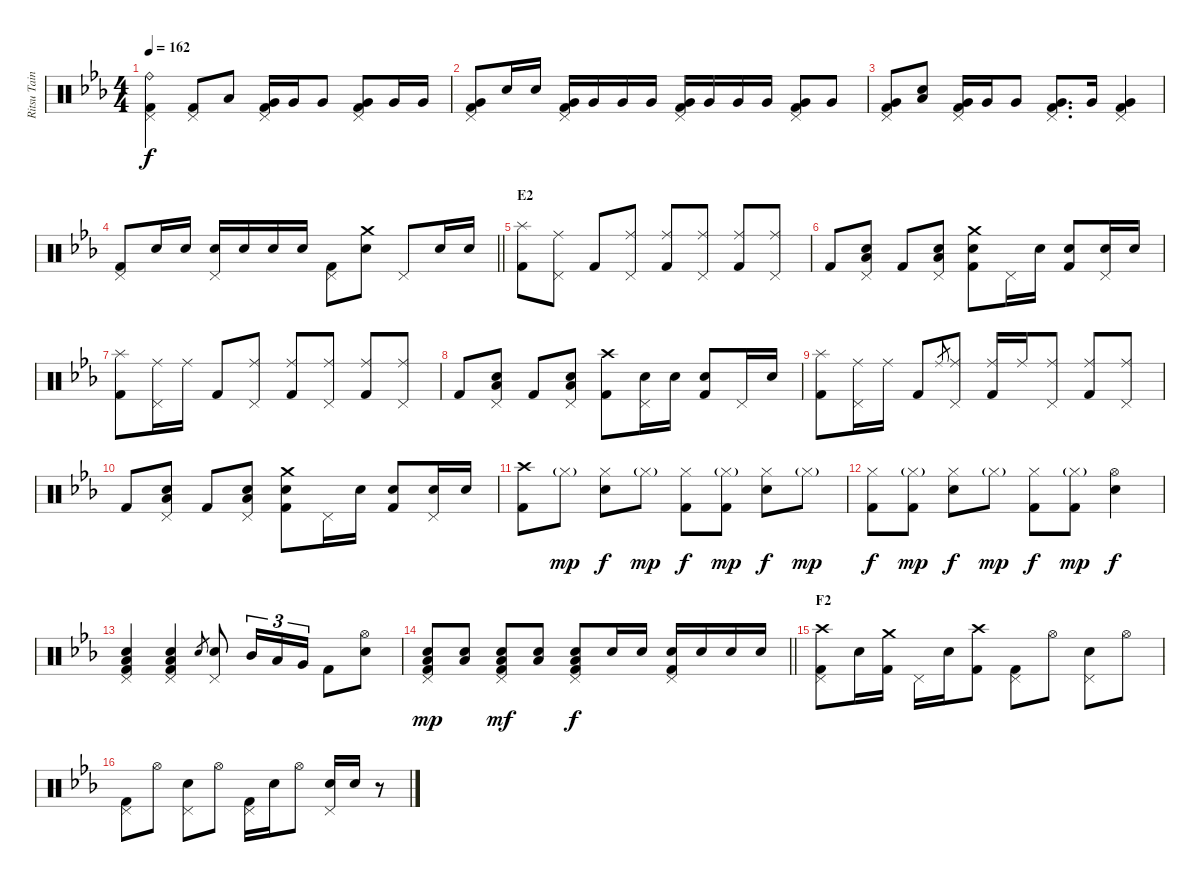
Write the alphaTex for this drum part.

\track ("Ritsu Tainaka" "Ritsu Tain") {instrument percussion}
\staff {score}
\articulation defaults
\ts (4 4)
\tempo 162
\clef neutral
\ks eb
("Ride (bell)" "Pedal Hi-Hat (hit)" "Kick (hit) 2").4{dy f} ("Pedal Hi-Hat (hit)" "Kick (hit) 2").8 "Low Tom (hit)".8 ("Pedal Hi-Hat (hit)" "Very Low Tom (hit)" "Kick (hit) 2").16 "Very Low Tom (hit)".16 "Very Low Tom (hit)".8 ("Pedal Hi-Hat (hit)" "Very Low Tom (hit)" "Kick (hit) 2").8 "Very Low Tom (hit)".16 "Very Low Tom (hit)".16 |
("Pedal Hi-Hat (hit)" "Very Low Tom (hit)" "Kick (hit) 2").8 "Electric Snare (hit)".16 "Electric Snare (hit)".16 ("Pedal Hi-Hat (hit)" "Very Low Tom (hit)" "Kick (hit) 2").16 "Very Low Tom (hit)".16 "Very Low Tom (hit)".16 "Very Low Tom (hit)".16 ("Pedal Hi-Hat (hit)" "Very Low Tom (hit)" "Kick (hit) 2").16 "Very Low Tom (hit)".16 "Very Low Tom (hit)".16 "Very Low Tom (hit)".16 ("Pedal Hi-Hat (hit)" "Very Low Tom (hit)" "Kick (hit) 2").8 "Very Low Tom (hit)".8 |
("Pedal Hi-Hat (hit)" "Very Low Tom (hit)" "Kick (hit) 2").8 ("Electric Snare (hit)" "Low Floor Tom (hit)").8 ("Pedal Hi-Hat (hit)" "Very Low Tom (hit)" "Kick (hit) 2").16 "Very Low Tom (hit)".16 "Very Low Tom (hit)".8 ("Pedal Hi-Hat (hit)" "Very Low Tom (hit)" "Kick (hit) 2").8{d} "Very Low Tom (hit)".16 ("Pedal Hi-Hat (hit)" "Very Low Tom (hit)" "Kick (hit) 2").4 |
\barLineRight lightlight
("Pedal Hi-Hat (hit)" "Kick (hit) 2").8 "Electric Snare (hit)".16 "Electric Snare (hit)".16 ("Pedal Hi-Hat (hit)" "Electric Snare (hit)").16 "Electric Snare (hit)".16 "Electric Snare (hit)".16 "Electric Snare (hit)".16 ("Pedal Hi-Hat (hit)" "Kick (hit) 2").8 ("Crash medium (hit)" "Electric Snare (hit)").8 "Pedal Hi-Hat (hit)".8 "Electric Snare (hit)".16 "Electric Snare (hit)".16 |
\section ("" "E2")
("Splash (hit)" "Kick (hit) 2").8 ("Ride (middle)" "Pedal Hi-Hat (hit)").8 "Kick (hit) 2".8 ("Ride (middle)" "Pedal Hi-Hat (hit)").8 ("Ride (middle)" "Kick (hit) 2").8 ("Ride (middle)" "Pedal Hi-Hat (hit)").8 ("Ride (middle)" "Kick (hit) 2").8 ("Ride (middle)" "Pedal Hi-Hat (hit)").8 |
"Kick (hit) 2".8 ("Pedal Hi-Hat (hit)" "Electric Snare (hit)" "Low Floor Tom (hit)").8 "Kick (hit) 2".8 ("Pedal Hi-Hat (hit)" "Electric Snare (hit)" "Low Floor Tom (hit)").8 ("Crash medium (hit)" "Electric Snare (hit)" "Kick (hit) 2").8 "Pedal Hi-Hat (hit)".16 "Electric Snare (hit)".16 ("Electric Snare (hit)" "Kick (hit) 2").8 ("Pedal Hi-Hat (hit)" "Electric Snare (hit)").16 "Electric Snare (hit)".16 |
("Splash (hit)" "Kick (hit) 2").8 ("Ride (middle)" "Pedal Hi-Hat (hit)").16 "Ride (middle)".16 "Kick (hit) 2".8 ("Ride (middle)" "Pedal Hi-Hat (hit)").8 ("Ride (middle)" "Kick (hit) 2").8 ("Ride (middle)" "Pedal Hi-Hat (hit)").8 ("Ride (middle)" "Kick (hit) 2").8 ("Ride (middle)" "Pedal Hi-Hat (hit)").8 |
"Kick (hit) 2".8 ("Pedal Hi-Hat (hit)" "Electric Snare (hit)" "Low Floor Tom (hit)").8 "Kick (hit) 2".8 ("Pedal Hi-Hat (hit)" "Electric Snare (hit)" "Low Floor Tom (hit)").8 ("Crash high (hit)" "Kick (hit) 2").8 ("Pedal Hi-Hat (hit)" "Electric Snare (hit)").16 "Electric Snare (hit)".16 ("Electric Snare (hit)" "Kick (hit) 2").8 "Pedal Hi-Hat (hit)".16 "Electric Snare (hit)".16 |
("Splash (hit)" "Kick (hit) 2").8 ("Ride (middle)" "Pedal Hi-Hat (hit)").16 "Ride (middle)".16 "Kick (hit) 2".8 "Ride (middle)".8{gr} ("Ride (middle)" "Pedal Hi-Hat (hit)").8 ("Ride (middle)" "Kick (hit) 2").16 "Ride (middle)".16 ("Ride (middle)" "Pedal Hi-Hat (hit)").8 ("Ride (middle)" "Kick (hit) 2").8 ("Ride (middle)" "Pedal Hi-Hat (hit)").8 |
"Kick (hit) 2".8 ("Pedal Hi-Hat (hit)" "Electric Snare (hit)" "Low Floor Tom (hit)").8 "Kick (hit) 2".8 ("Pedal Hi-Hat (hit)" "Electric Snare (hit)" "Low Floor Tom (hit)").8 ("Crash medium (hit)" "Electric Snare (hit)" "Kick (hit) 2").8 "Pedal Hi-Hat (hit)".16 "Electric Snare (hit)".16 ("Electric Snare (hit)" "Kick (hit) 2").8 ("Pedal Hi-Hat (hit)" "Electric Snare (hit)").16 "Electric Snare (hit)".16 |
("Crash high (hit)" "Kick (hit) 2").8 "Hi-Hat (closed)"{g}.8{dy mp} ("Hi-Hat (closed)" "Electric Snare (hit)").8{dy f} "Hi-Hat (closed)"{g}.8{dy mp} ("Hi-Hat (closed)" "Kick (hit) 2").8{dy f} ("Hi-Hat (closed)"{g} "Kick (hit) 2").8{dy mp} ("Hi-Hat (closed)" "Electric Snare (hit)").8{dy f} "Hi-Hat (closed)"{g}.8{dy mp} |
("Hi-Hat (closed)" "Kick (hit) 2").8{dy f} ("Hi-Hat (closed)"{g} "Kick (hit) 2").8{dy mp} ("Hi-Hat (closed)" "Electric Snare (hit)").8{dy f} "Hi-Hat (closed)"{g}.8{dy mp} ("Hi-Hat (closed)" "Kick (hit) 2").8{dy f} ("Hi-Hat (closed)"{g} "Kick (hit) 2").8{dy mp} ("Hi-Hat (open)" "Electric Snare (hit)").4{dy f} |
("Pedal Hi-Hat (hit)" "Electric Snare (hit)" "Low Floor Tom (hit)" "Kick (hit) 2").4 ("Pedal Hi-Hat (hit)" "Electric Snare (hit)" "Low Floor Tom (hit)" "Kick (hit) 2").4 "Electric Snare (hit)".8{gr} ("Pedal Hi-Hat (hit)" "Electric Snare (hit)").8 "Mid Tom (hit)".16{tu (3 2)} "Low Tom (hit)".16{tu (3 2)} "Very Low Tom (hit)".16{tu (3 2)} "Kick (hit) 2".8 ("Hi-Hat (open)" "Electric Snare (hit)").8 |
\barLineRight lightlight
("Pedal Hi-Hat (hit)" "Electric Snare (hit)" "Low Floor Tom (hit)" "Kick (hit) 2").8{dy mp} ("Electric Snare (hit)" "Low Floor Tom (hit)").8 ("Pedal Hi-Hat (hit)" "Electric Snare (hit)" "Low Floor Tom (hit)" "Kick (hit) 2").8{dy mf} ("Electric Snare (hit)" "Low Floor Tom (hit)").8 ("Pedal Hi-Hat (hit)" "Electric Snare (hit)" "Low Floor Tom (hit)" "Kick (hit) 2").8{dy f} "Electric Snare (hit)".16 "Electric Snare (hit)".16 ("Pedal Hi-Hat (hit)" "Electric Snare (hit)" "Kick (hit) 2").16 "Electric Snare (hit)".16 "Electric Snare (hit)".16 "Electric Snare (hit)".16 |
\section ("" "F2")
("Crash high (hit)" "Pedal Hi-Hat (hit)" "Kick (hit) 2").8 "Electric Snare (hit)".16 ("Crash medium (hit)" "Kick (hit) 2").16 "Pedal Hi-Hat (hit)".16 "Electric Snare (hit)".16 ("Crash high (hit)" "Kick (hit) 2").8 ("Pedal Hi-Hat (hit)" "Kick (hit) 2").8 "Hi-Hat (open)".8 ("Pedal Hi-Hat (hit)" "Electric Snare (hit)").8 "Hi-Hat (open)".8 |
("Pedal Hi-Hat (hit)" "Kick (hit) 2").8 "Hi-Hat (open)".8 ("Pedal Hi-Hat (hit)" "Electric Snare (hit)").8 "Hi-Hat (open)".8 ("Pedal Hi-Hat (hit)" "Kick (hit) 2").16 "Electric Snare (hit)".16 "Hi-Hat (open)".8 ("Pedal Hi-Hat (hit)" "Electric Snare (hit)").16 "Electric Snare (hit)".16 r.8
